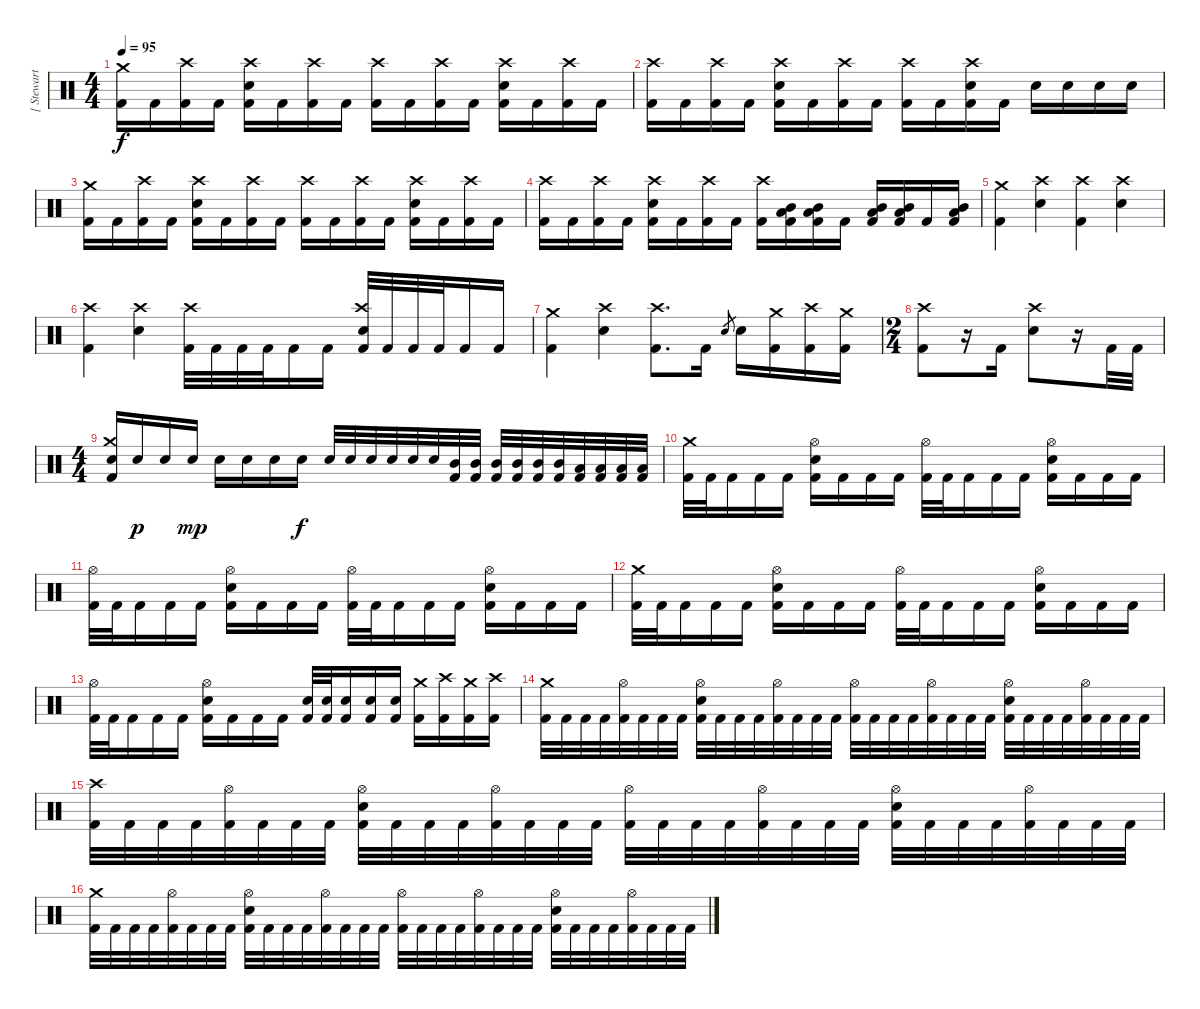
\track ("[ Stewart ] " "[ Stewart ") {instrument percussion}
\staff {score}
\articulation defaults
\ts (4 4)
\tempo 95
\clef neutral
\ks c
("Kick (hit) 2" "Crash medium (hit)").16{dy f} "Kick (hit) 2".16 ("Kick (hit) 2" "Crash high (hit)").16 "Kick (hit) 2".16 ("Kick (hit) 2" "Electric Snare (hit)" "Crash high (hit)").16 "Kick (hit) 2".16 ("Kick (hit) 2" "Crash high (hit)").16 "Kick (hit) 2".16 ("Kick (hit) 2" "Crash high (hit)").16 "Kick (hit) 2".16 ("Kick (hit) 2" "Crash high (hit)").16 "Kick (hit) 2".16 ("Kick (hit) 2" "Electric Snare (hit)" "Crash high (hit)").16 "Kick (hit) 2".16 ("Kick (hit) 2" "Crash high (hit)").16 "Kick (hit) 2".16 |
("Kick (hit) 2" "Crash high (hit)").16 "Kick (hit) 2".16 ("Kick (hit) 2" "Crash high (hit)").16 "Kick (hit) 2".16 ("Kick (hit) 2" "Electric Snare (hit)" "Crash high (hit)").16 "Kick (hit) 2".16 ("Kick (hit) 2" "Crash high (hit)").16 "Kick (hit) 2".16 ("Kick (hit) 2" "Crash high (hit)").16 "Kick (hit) 2".16 ("Kick (hit) 2" "Electric Snare (hit)" "Crash high (hit)").16 "Kick (hit) 2".16 "Electric Snare (hit)".16 "Electric Snare (hit)".16 "Electric Snare (hit)".16 "Electric Snare (hit)".16 |
("Kick (hit) 2" "Crash medium (hit)").16 "Kick (hit) 2".16 ("Kick (hit) 2" "Crash high (hit)").16 "Kick (hit) 2".16 ("Kick (hit) 2" "Electric Snare (hit)" "Crash high (hit)").16 "Kick (hit) 2".16 ("Kick (hit) 2" "Crash high (hit)").16 "Kick (hit) 2".16 ("Kick (hit) 2" "Crash high (hit)").16 "Kick (hit) 2".16 ("Kick (hit) 2" "Crash high (hit)").16 "Kick (hit) 2".16 ("Kick (hit) 2" "Electric Snare (hit)" "Crash high (hit)").16 "Kick (hit) 2".16 ("Kick (hit) 2" "Crash high (hit)").16 "Kick (hit) 2".16 |
("Kick (hit) 2" "Crash high (hit)").16 "Kick (hit) 2".16 ("Kick (hit) 2" "Crash high (hit)").16 "Kick (hit) 2".16 ("Kick (hit) 2" "Electric Snare (hit)" "Crash high (hit)").16 "Kick (hit) 2".16 ("Kick (hit) 2" "Crash high (hit)").16 "Kick (hit) 2".16 ("Kick (hit) 2" "Crash high (hit)").16 ("Kick (hit) 2" "Mid Tom (hit)" "Low Tom (hit)").16 ("Kick (hit) 2" "Mid Tom (hit)" "Low Tom (hit)").16 "Kick (hit) 2".16 ("Kick (hit) 2" "Mid Tom (hit)" "Low Tom (hit)").16 ("Kick (hit) 2" "Mid Tom (hit)" "Low Tom (hit)").16 "Kick (hit) 2".16 ("Kick (hit) 2" "Mid Tom (hit)" "Low Tom (hit)").16 |
("Kick (hit) 2" "Crash medium (hit)").4 ("Electric Snare (hit)" "Crash high (hit)").4 ("Kick (hit) 2" "Crash high (hit)").4 ("Electric Snare (hit)" "Crash high (hit)").4 |
("Kick (hit) 2" "Crash high (hit)").4 ("Electric Snare (hit)" "Crash high (hit)").4 ("Kick (hit) 2" "Crash high (hit)").32 "Kick (hit) 2".32 "Kick (hit) 2".32 "Kick (hit) 2".32 "Kick (hit) 2".16 "Kick (hit) 2".16 ("Kick (hit) 2" "Electric Snare (hit)" "Crash high (hit)").32 "Kick (hit) 2".32 "Kick (hit) 2".32 "Kick (hit) 2".32 "Kick (hit) 2".16 "Kick (hit) 2".16 |
("Kick (hit) 2" "Crash medium (hit)").4 ("Electric Snare (hit)" "Crash high (hit)").4 ("Kick (hit) 2" "Crash high (hit)").8{d} "Kick (hit) 2".16 "Electric Snare (hit)".8{gr} "Electric Snare (hit)".16 ("Kick (hit) 2" "Crash medium (hit)").16 ("Kick (hit) 2" "Crash high (hit)").16 ("Kick (hit) 2" "Crash medium (hit)").16 |
\ts (2 4)
("Kick (hit) 2" "Crash high (hit)").8 r.16 "Kick (hit) 2".16 ("Electric Snare (hit)" "Crash high (hit)").8 r.16 "Kick (hit) 2".32 "Kick (hit) 2".32 |
\ts (4 4)
("Electric Snare (hit)" "Kick (hit) 2" "Crash medium (hit)").16 "Electric Snare (hit)".16{dy p} "Electric Snare (hit)".16 "Electric Snare (hit)".16{dy mp} "Electric Snare (hit)".16 "Electric Snare (hit)".16 "Electric Snare (hit)".16 "Electric Snare (hit)".16{dy f} "Electric Snare (hit)".32 "Electric Snare (hit)".32 "Electric Snare (hit)".32 "Electric Snare (hit)".32 "Electric Snare (hit)".32 "Electric Snare (hit)".32 ("Mid Tom (hit)" "Kick (hit) 2").32 ("Mid Tom (hit)" "Kick (hit) 2").32 ("Mid Tom (hit)" "Kick (hit) 2").32 ("Mid Tom (hit)" "Kick (hit) 2").32 ("Mid Tom (hit)" "Kick (hit) 2").32 ("Mid Tom (hit)" "Kick (hit) 2").32 ("Low Tom (hit)" "Kick (hit) 2").32 ("Low Tom (hit)" "Kick (hit) 2").32 ("Low Tom (hit)" "Kick (hit) 2").32 ("Low Tom (hit)" "Kick (hit) 2").32 |
("Kick (hit) 2" "Crash medium (hit)").32 "Kick (hit) 2".32 "Kick (hit) 2".16 "Kick (hit) 2".16 "Kick (hit) 2".16 ("Kick (hit) 2" "Electric Snare (hit)" "Hi-Hat (open)").16 "Kick (hit) 2".16 "Kick (hit) 2".16 "Kick (hit) 2".16 ("Kick (hit) 2" "Hi-Hat (open)").32 "Kick (hit) 2".32 "Kick (hit) 2".16 "Kick (hit) 2".16 "Kick (hit) 2".16 ("Kick (hit) 2" "Electric Snare (hit)" "Hi-Hat (open)").16 "Kick (hit) 2".16 "Kick (hit) 2".16 "Kick (hit) 2".16 |
("Kick (hit) 2" "Hi-Hat (open)").32 "Kick (hit) 2".32 "Kick (hit) 2".16 "Kick (hit) 2".16 "Kick (hit) 2".16 ("Kick (hit) 2" "Electric Snare (hit)" "Hi-Hat (open)").16 "Kick (hit) 2".16 "Kick (hit) 2".16 "Kick (hit) 2".16 ("Kick (hit) 2" "Hi-Hat (open)").32 "Kick (hit) 2".32 "Kick (hit) 2".16 "Kick (hit) 2".16 "Kick (hit) 2".16 ("Kick (hit) 2" "Electric Snare (hit)" "Hi-Hat (open)").16 "Kick (hit) 2".16 "Kick (hit) 2".16 "Kick (hit) 2".16 |
("Kick (hit) 2" "Crash medium (hit)").32 "Kick (hit) 2".32 "Kick (hit) 2".16 "Kick (hit) 2".16 "Kick (hit) 2".16 ("Kick (hit) 2" "Electric Snare (hit)" "Hi-Hat (open)").16 "Kick (hit) 2".16 "Kick (hit) 2".16 "Kick (hit) 2".16 ("Kick (hit) 2" "Hi-Hat (open)").32 "Kick (hit) 2".32 "Kick (hit) 2".16 "Kick (hit) 2".16 "Kick (hit) 2".16 ("Kick (hit) 2" "Electric Snare (hit)" "Hi-Hat (open)").16 "Kick (hit) 2".16 "Kick (hit) 2".16 "Kick (hit) 2".16 |
("Kick (hit) 2" "Hi-Hat (open)").32 "Kick (hit) 2".32 "Kick (hit) 2".16 "Kick (hit) 2".16 "Kick (hit) 2".16 ("Kick (hit) 2" "Electric Snare (hit)" "Hi-Hat (open)").16 "Kick (hit) 2".16 "Kick (hit) 2".16 "Kick (hit) 2".16 ("Kick (hit) 2" "Electric Snare (hit)").32 ("Kick (hit) 2" "Electric Snare (hit)").32 ("Kick (hit) 2" "Electric Snare (hit)").16 ("Kick (hit) 2" "Electric Snare (hit)").16 ("Kick (hit) 2" "Electric Snare (hit)").16 ("Kick (hit) 2" "Crash medium (hit)").16 ("Kick (hit) 2" "Crash high (hit)").16 ("Kick (hit) 2" "Crash medium (hit)").16 ("Kick (hit) 2" "Crash high (hit)").16 |
("Kick (hit) 2" "Crash medium (hit)").32 "Kick (hit) 2".32 "Kick (hit) 2".32 "Kick (hit) 2".32 ("Kick (hit) 2" "Hi-Hat (open)").32 "Kick (hit) 2".32 "Kick (hit) 2".32 "Kick (hit) 2".32 ("Kick (hit) 2" "Electric Snare (hit)" "Hi-Hat (open)").32 "Kick (hit) 2".32 "Kick (hit) 2".32 "Kick (hit) 2".32 ("Kick (hit) 2" "Hi-Hat (open)").32 "Kick (hit) 2".32 "Kick (hit) 2".32 "Kick (hit) 2".32 ("Kick (hit) 2" "Hi-Hat (open)").32 "Kick (hit) 2".32 "Kick (hit) 2".32 "Kick (hit) 2".32 ("Kick (hit) 2" "Hi-Hat (open)").32 "Kick (hit) 2".32 "Kick (hit) 2".32 "Kick (hit) 2".32 ("Kick (hit) 2" "Electric Snare (hit)" "Hi-Hat (open)").32 "Kick (hit) 2".32 "Kick (hit) 2".32 "Kick (hit) 2".32 ("Kick (hit) 2" "Hi-Hat (open)").32 "Kick (hit) 2".32 "Kick (hit) 2".32 "Kick (hit) 2".32 |
("Kick (hit) 2" "Crash high (hit)").32 "Kick (hit) 2".32 "Kick (hit) 2".32 "Kick (hit) 2".32 ("Kick (hit) 2" "Hi-Hat (open)").32 "Kick (hit) 2".32 "Kick (hit) 2".32 "Kick (hit) 2".32 ("Kick (hit) 2" "Electric Snare (hit)" "Hi-Hat (open)").32 "Kick (hit) 2".32 "Kick (hit) 2".32 "Kick (hit) 2".32 ("Kick (hit) 2" "Hi-Hat (open)").32 "Kick (hit) 2".32 "Kick (hit) 2".32 "Kick (hit) 2".32 ("Kick (hit) 2" "Hi-Hat (open)").32 "Kick (hit) 2".32 "Kick (hit) 2".32 "Kick (hit) 2".32 ("Kick (hit) 2" "Hi-Hat (open)").32 "Kick (hit) 2".32 "Kick (hit) 2".32 "Kick (hit) 2".32 ("Kick (hit) 2" "Electric Snare (hit)" "Hi-Hat (open)").32 "Kick (hit) 2".32 "Kick (hit) 2".32 "Kick (hit) 2".32 ("Kick (hit) 2" "Hi-Hat (open)").32 "Kick (hit) 2".32 "Kick (hit) 2".32 "Kick (hit) 2".32 |
("Kick (hit) 2" "Crash medium (hit)").32 "Kick (hit) 2".32 "Kick (hit) 2".32 "Kick (hit) 2".32 ("Kick (hit) 2" "Hi-Hat (open)").32 "Kick (hit) 2".32 "Kick (hit) 2".32 "Kick (hit) 2".32 ("Kick (hit) 2" "Electric Snare (hit)" "Hi-Hat (open)").32 "Kick (hit) 2".32 "Kick (hit) 2".32 "Kick (hit) 2".32 ("Kick (hit) 2" "Hi-Hat (open)").32 "Kick (hit) 2".32 "Kick (hit) 2".32 "Kick (hit) 2".32 ("Kick (hit) 2" "Hi-Hat (open)").32 "Kick (hit) 2".32 "Kick (hit) 2".32 "Kick (hit) 2".32 ("Kick (hit) 2" "Hi-Hat (open)").32 "Kick (hit) 2".32 "Kick (hit) 2".32 "Kick (hit) 2".32 ("Kick (hit) 2" "Electric Snare (hit)" "Hi-Hat (open)").32 "Kick (hit) 2".32 "Kick (hit) 2".32 "Kick (hit) 2".32 ("Kick (hit) 2" "Hi-Hat (open)").32 "Kick (hit) 2".32 "Kick (hit) 2".32 "Kick (hit) 2".32
